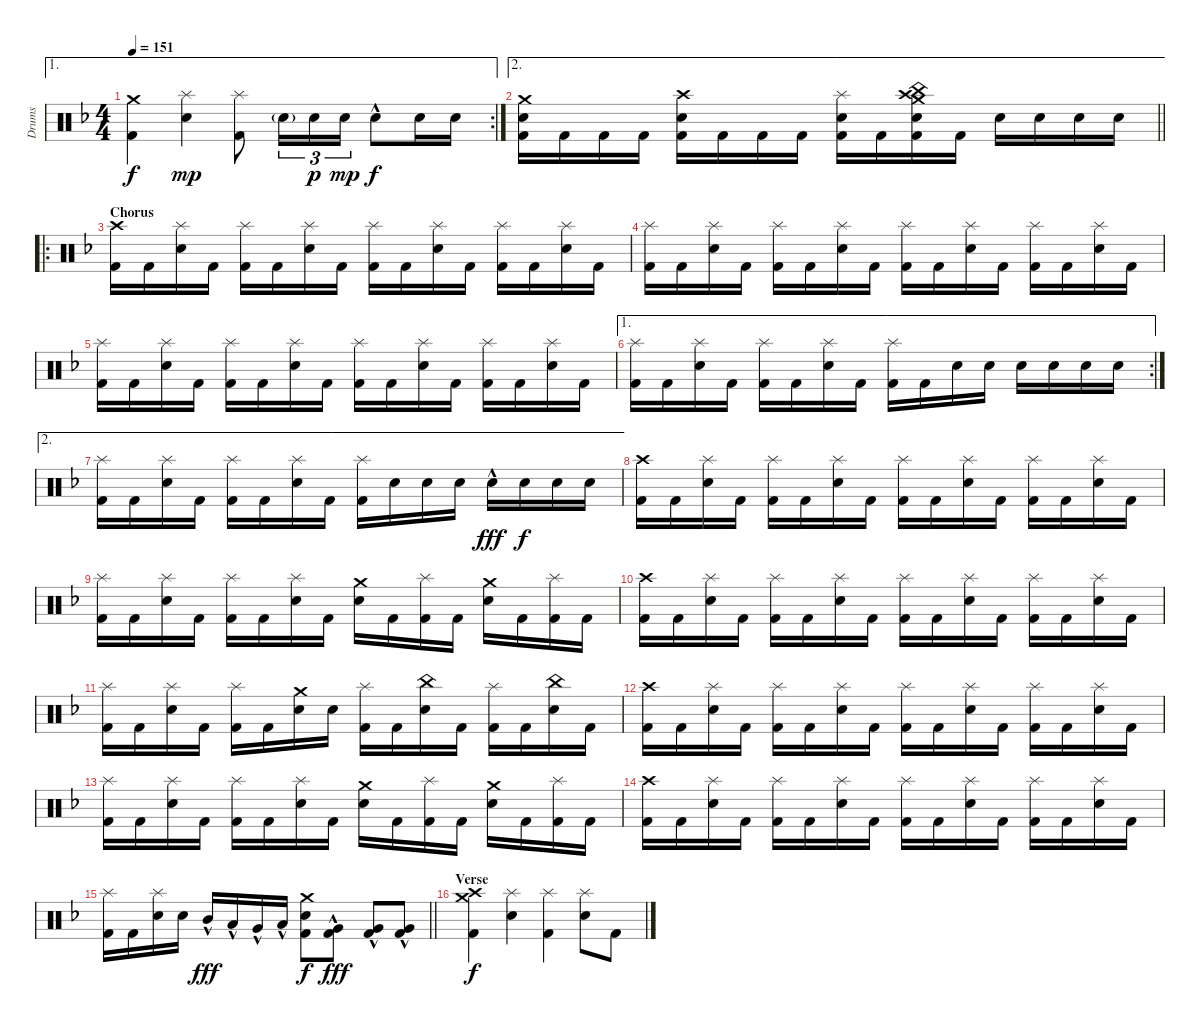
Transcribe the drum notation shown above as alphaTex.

\track ("Drums" "Drums") {instrument percussion}
\staff {score}
\articulation defaults
\ae 1
\rc 2
\ts (4 4)
\tempo 151
\clef neutral
\ks dminor
("Crash medium (hit)" "Kick (hit) 2").4{dy f} ("Splash (hit)" "Snare (hit) 2").4{dy mp} ("Splash (hit)" "Kick (hit) 2").8 "Snare (hit) 2"{g}.16{tu (3 2)} "Snare (hit) 2".16{tu (3 2) dy p} "Snare (hit) 2".16{tu (3 2) dy mp} "Snare (hit) 2"{hac}.8{dy f} "Snare (hit) 2".16 "Snare (hit) 2".16 |
\ae 2
\barLineRight lightlight
("Crash medium (hit)" "Snare (hit) 2" "Kick (hit) 2").16 "Kick (hit) 2".16 "Kick (hit) 2".16 "Kick (hit) 2".16 ("Crash high (hit)" "Snare (hit) 2" "Kick (hit) 2").16 "Kick (hit) 2".16 "Kick (hit) 2".16 "Kick (hit) 2".16 ("Splash (hit)" "Snare (hit) 2" "Kick (hit) 2").16 "Kick (hit) 2".16 ("Crash high (hit)" "Crash medium (hit)" "China (hit)" "Snare (hit) 2" "Kick (hit) 2").16 "Kick (hit) 2".16 "Snare (hit) 2".16 "Snare (hit) 2".16 "Snare (hit) 2".16 "Snare (hit) 2".16 |
\ro
\section ("" "Chorus")
("Crash high (hit)" "Kick (hit) 2").16 "Kick (hit) 2".16 ("Splash (hit)" "Snare (hit) 2").16 "Kick (hit) 2".16 ("Splash (hit)" "Kick (hit) 2").16 "Kick (hit) 2".16 ("Splash (hit)" "Snare (hit) 2").16 "Kick (hit) 2".16 ("Splash (hit)" "Kick (hit) 2").16 "Kick (hit) 2".16 ("Splash (hit)" "Snare (hit) 2").16 "Kick (hit) 2".16 ("Splash (hit)" "Kick (hit) 2").16 "Kick (hit) 2".16 ("Splash (hit)" "Snare (hit) 2").16 "Kick (hit) 2".16 |
("Splash (hit)" "Kick (hit) 2").16 "Kick (hit) 2".16 ("Splash (hit)" "Snare (hit) 2").16 "Kick (hit) 2".16 ("Splash (hit)" "Kick (hit) 2").16 "Kick (hit) 2".16 ("Splash (hit)" "Snare (hit) 2").16 "Kick (hit) 2".16 ("Splash (hit)" "Kick (hit) 2").16 "Kick (hit) 2".16 ("Splash (hit)" "Snare (hit) 2").16 "Kick (hit) 2".16 ("Splash (hit)" "Kick (hit) 2").16 "Kick (hit) 2".16 ("Splash (hit)" "Snare (hit) 2").16 "Kick (hit) 2".16 |
("Splash (hit)" "Kick (hit) 2").16 "Kick (hit) 2".16 ("Splash (hit)" "Snare (hit) 2").16 "Kick (hit) 2".16 ("Splash (hit)" "Kick (hit) 2").16 "Kick (hit) 2".16 ("Splash (hit)" "Snare (hit) 2").16 "Kick (hit) 2".16 ("Splash (hit)" "Kick (hit) 2").16 "Kick (hit) 2".16 ("Splash (hit)" "Snare (hit) 2").16 "Kick (hit) 2".16 ("Splash (hit)" "Kick (hit) 2").16 "Kick (hit) 2".16 ("Splash (hit)" "Snare (hit) 2").16 "Kick (hit) 2".16 |
\ae 1
\rc 2
("Splash (hit)" "Kick (hit) 2").16 "Kick (hit) 2".16 ("Splash (hit)" "Snare (hit) 2").16 "Kick (hit) 2".16 ("Splash (hit)" "Kick (hit) 2").16 "Kick (hit) 2".16 ("Splash (hit)" "Snare (hit) 2").16 "Kick (hit) 2".16 ("Splash (hit)" "Kick (hit) 2").16 "Kick (hit) 2".16 "Snare (hit) 2".16 "Snare (hit) 2".16 "Snare (hit) 2".16 "Snare (hit) 2".16 "Snare (hit) 2".16 "Snare (hit) 2".16 |
\ae 2
("Splash (hit)" "Kick (hit) 2").16 "Kick (hit) 2".16 ("Splash (hit)" "Snare (hit) 2").16 "Kick (hit) 2".16 ("Splash (hit)" "Kick (hit) 2").16 "Kick (hit) 2".16 ("Splash (hit)" "Snare (hit) 2").16 "Kick (hit) 2".16 ("Splash (hit)" "Kick (hit) 2").16 "Snare (hit) 2".16 "Snare (hit) 2".16 "Snare (hit) 2".16 "Snare (hit) 2"{hac}.16{dy fff} "Snare (hit) 2".16{dy f} "Snare (hit) 2".16 "Snare (hit) 2".16 |
("Crash high (hit)" "Kick (hit) 2").16 "Kick (hit) 2".16 ("Splash (hit)" "Snare (hit) 2").16 "Kick (hit) 2".16 ("Splash (hit)" "Kick (hit) 2").16 "Kick (hit) 2".16 ("Splash (hit)" "Snare (hit) 2").16 "Kick (hit) 2".16 ("Splash (hit)" "Kick (hit) 2").16 "Kick (hit) 2".16 ("Splash (hit)" "Snare (hit) 2").16 "Kick (hit) 2".16 ("Splash (hit)" "Kick (hit) 2").16 "Kick (hit) 2".16 ("Splash (hit)" "Snare (hit) 2").16 "Kick (hit) 2".16 |
("Splash (hit)" "Kick (hit) 2").16 "Kick (hit) 2".16 ("Splash (hit)" "Snare (hit) 2").16 "Kick (hit) 2".16 ("Splash (hit)" "Kick (hit) 2").16 "Kick (hit) 2".16 ("Splash (hit)" "Snare (hit) 2").16 "Kick (hit) 2".16 ("Crash medium (hit)" "Snare (hit) 2").16 "Kick (hit) 2".16 ("Splash (hit)" "Kick (hit) 2").16 "Kick (hit) 2".16 ("Crash medium (hit)" "Snare (hit) 2").16 "Kick (hit) 2".16 ("Splash (hit)" "Kick (hit) 2").16 "Kick (hit) 2".16 |
("Crash high (hit)" "Kick (hit) 2").16 "Kick (hit) 2".16 ("Splash (hit)" "Snare (hit) 2").16 "Kick (hit) 2".16 ("Splash (hit)" "Kick (hit) 2").16 "Kick (hit) 2".16 ("Splash (hit)" "Snare (hit) 2").16 "Kick (hit) 2".16 ("Splash (hit)" "Kick (hit) 2").16 "Kick (hit) 2".16 ("Splash (hit)" "Snare (hit) 2").16 "Kick (hit) 2".16 ("Splash (hit)" "Kick (hit) 2").16 "Kick (hit) 2".16 ("Splash (hit)" "Snare (hit) 2").16 "Kick (hit) 2".16 |
("Splash (hit)" "Kick (hit) 2").16 "Kick (hit) 2".16 ("Splash (hit)" "Snare (hit) 2").16 "Kick (hit) 2".16 ("Splash (hit)" "Kick (hit) 2").16 "Kick (hit) 2".16 ("Crash medium (hit)" "Snare (hit) 2").16 "Snare (hit) 2".16 ("Splash (hit)" "Kick (hit) 2").16 "Kick (hit) 2".16 ("China (hit)" "Snare (hit) 2").16 "Kick (hit) 2".16 ("Splash (hit)" "Kick (hit) 2").16 "Kick (hit) 2".16 ("China (hit)" "Snare (hit) 2").16 "Kick (hit) 2".16 |
("Crash high (hit)" "Kick (hit) 2").16 "Kick (hit) 2".16 ("Splash (hit)" "Snare (hit) 2").16 "Kick (hit) 2".16 ("Splash (hit)" "Kick (hit) 2").16 "Kick (hit) 2".16 ("Splash (hit)" "Snare (hit) 2").16 "Kick (hit) 2".16 ("Splash (hit)" "Kick (hit) 2").16 "Kick (hit) 2".16 ("Splash (hit)" "Snare (hit) 2").16 "Kick (hit) 2".16 ("Splash (hit)" "Kick (hit) 2").16 "Kick (hit) 2".16 ("Splash (hit)" "Snare (hit) 2").16 "Kick (hit) 2".16 |
("Splash (hit)" "Kick (hit) 2").16 "Kick (hit) 2".16 ("Splash (hit)" "Snare (hit) 2").16 "Kick (hit) 2".16 ("Splash (hit)" "Kick (hit) 2").16 "Kick (hit) 2".16 ("Splash (hit)" "Snare (hit) 2").16 "Kick (hit) 2".16 ("Crash medium (hit)" "Snare (hit) 2").16 "Kick (hit) 2".16 ("Splash (hit)" "Kick (hit) 2").16 "Kick (hit) 2".16 ("Crash medium (hit)" "Snare (hit) 2").16 "Kick (hit) 2".16 ("Splash (hit)" "Kick (hit) 2").16 "Kick (hit) 2".16 |
("Crash high (hit)" "Kick (hit) 2").16 "Kick (hit) 2".16 ("Splash (hit)" "Snare (hit) 2").16 "Kick (hit) 2".16 ("Splash (hit)" "Kick (hit) 2").16 "Kick (hit) 2".16 ("Splash (hit)" "Snare (hit) 2").16 "Kick (hit) 2".16 ("Splash (hit)" "Kick (hit) 2").16 "Kick (hit) 2".16 ("Splash (hit)" "Snare (hit) 2").16 "Kick (hit) 2".16 ("Splash (hit)" "Kick (hit) 2").16 "Kick (hit) 2".16 ("Splash (hit)" "Snare (hit) 2").16 "Kick (hit) 2".16 |
\barLineRight lightlight
("Splash (hit)" "Kick (hit) 2").16 "Kick (hit) 2".16 ("Splash (hit)" "Snare (hit) 2").16 "Snare (hit) 2".16 "Mid Tom (hit)"{hac}.16{dy fff} "Low Tom (hit)"{hac}.16 "Very Low Tom (hit)"{hac}.16 "Low Floor Tom (hit)"{hac}.16 ("Crash medium (hit)" "Snare (hit) 2" "Kick (hit) 2").8{dy f} ("Very Low Tom (hit)"{hac} "Kick (hit) 2").8{dy fff} ("Very Low Tom (hit)"{hac} "Kick (hit) 2").8 ("Very Low Tom (hit)"{hac} "Kick (hit) 2").8 |
\section ("" "Verse")
("Crash high (hit)" "Crash medium (hit)" "Kick (hit) 2").4{dy f} ("Splash (hit)" "Snare (hit) 2").4 ("Splash (hit)" "Kick (hit) 2").4 ("Splash (hit)" "Snare (hit) 2").8 "Kick (hit) 2".8
